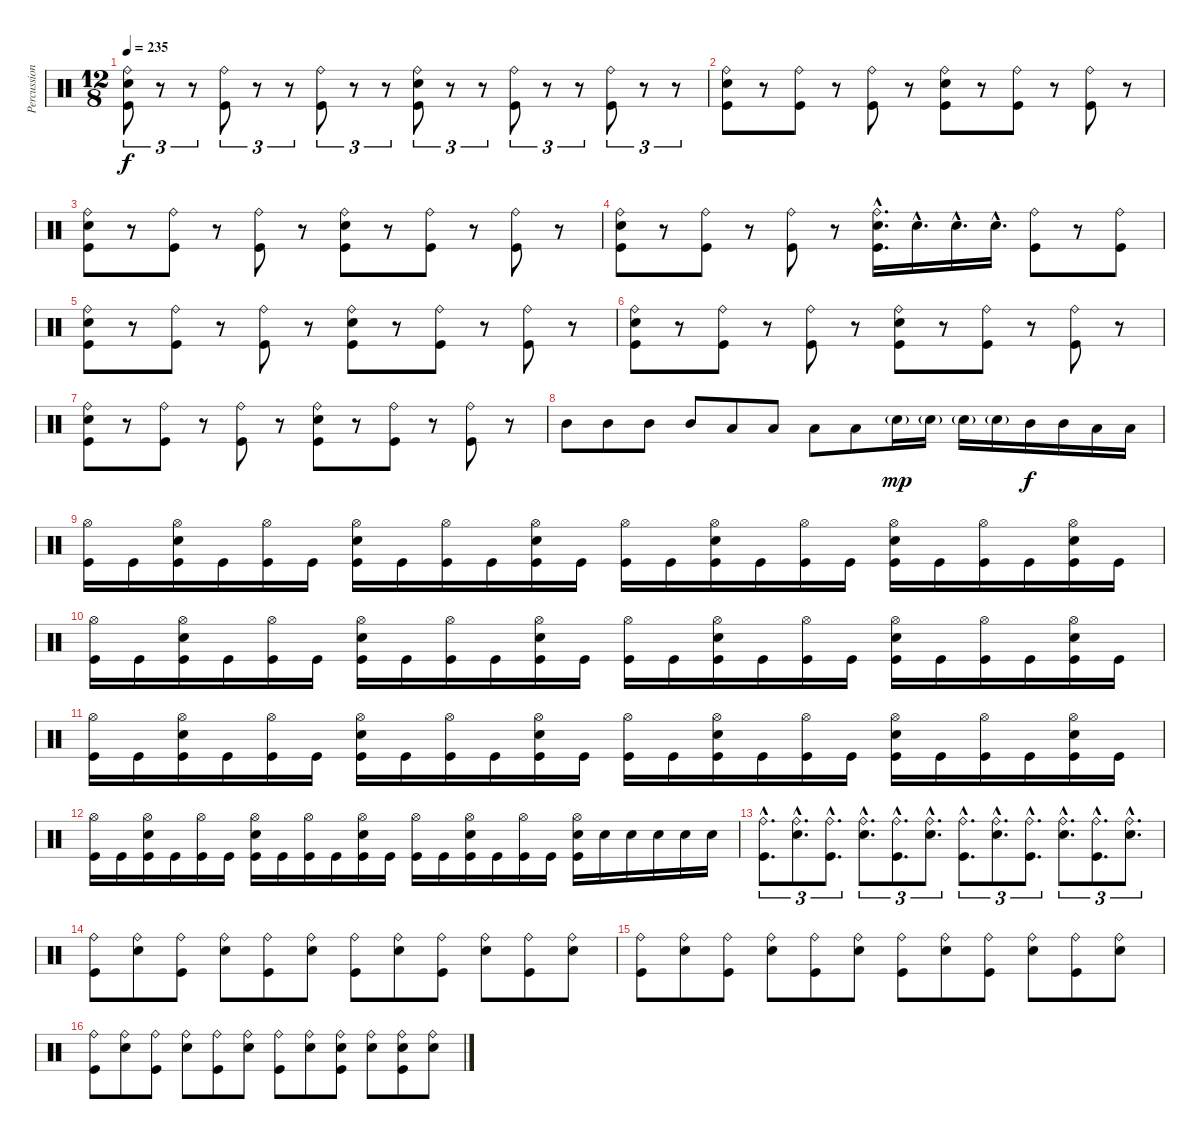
\track ("Percussion" "Percussion") {instrument percussion}
\staff {score}
\articulation defaults
\ts (12 8)
\tempo 235
\clef neutral
\ks c
("Ride (bell)" "Snare (hit) 2" "Kick (hit)").8{tu (3 2) dy f} r.8{tu (3 2)} r.8{tu (3 2)} ("Ride (bell)" "Kick (hit)").8{tu (3 2)} r.8{tu (3 2)} r.8{tu (3 2)} ("Ride (bell)" "Kick (hit)").8{tu (3 2)} r.8{tu (3 2)} r.8{tu (3 2)} ("Ride (bell)" "Snare (hit) 2" "Kick (hit)").8{tu (3 2)} r.8{tu (3 2)} r.8{tu (3 2)} ("Ride (bell)" "Kick (hit)").8{tu (3 2)} r.8{tu (3 2)} r.8{tu (3 2)} ("Ride (bell)" "Kick (hit)").8{tu (3 2)} r.8{tu (3 2)} r.8{tu (3 2)} |
("Ride (bell)" "Snare (hit) 2" "Kick (hit)").8 r.8 ("Ride (bell)" "Kick (hit)").8 r.8 ("Ride (bell)" "Kick (hit)").8 r.8 ("Ride (bell)" "Snare (hit) 2" "Kick (hit)").8 r.8 ("Ride (bell)" "Kick (hit)").8 r.8 ("Ride (bell)" "Kick (hit)").8 r.8 |
("Ride (bell)" "Snare (hit) 2" "Kick (hit)").8 r.8 ("Ride (bell)" "Kick (hit)").8 r.8 ("Ride (bell)" "Kick (hit)").8 r.8 ("Ride (bell)" "Snare (hit) 2" "Kick (hit)").8 r.8 ("Ride (bell)" "Kick (hit)").8 r.8 ("Ride (bell)" "Kick (hit)").8 r.8 |
("Ride (bell)" "Snare (hit) 2" "Kick (hit)").8 r.8 ("Ride (bell)" "Kick (hit)").8 r.8 ("Ride (bell)" "Kick (hit)").8 r.8 ("Ride (bell)"{hac} "Snare (hit) 2"{hac} "Kick (hit)"{hac}).16{d} "Snare (hit) 2"{hac}.16{d} "Snare (hit) 2"{hac}.16{d} "Snare (hit) 2"{hac}.16{d} ("Ride (bell)" "Kick (hit)").8 r.8 ("Ride (bell)" "Kick (hit)").8 |
("Ride (bell)" "Snare (hit) 2" "Kick (hit)").8 r.8 ("Ride (bell)" "Kick (hit)").8 r.8 ("Ride (bell)" "Kick (hit)").8 r.8 ("Ride (bell)" "Snare (hit) 2" "Kick (hit)").8 r.8 ("Ride (bell)" "Kick (hit)").8 r.8 ("Ride (bell)" "Kick (hit)").8 r.8 |
("Ride (bell)" "Snare (hit) 2" "Kick (hit)").8 r.8 ("Ride (bell)" "Kick (hit)").8 r.8 ("Ride (bell)" "Kick (hit)").8 r.8 ("Ride (bell)" "Snare (hit) 2" "Kick (hit)").8 r.8 ("Ride (bell)" "Kick (hit)").8 r.8 ("Ride (bell)" "Kick (hit)").8 r.8 |
("Ride (bell)" "Snare (hit) 2" "Kick (hit)").8 r.8 ("Ride (bell)" "Kick (hit)").8 r.8 ("Ride (bell)" "Kick (hit)").8 r.8 ("Ride (bell)" "Snare (hit) 2" "Kick (hit)").8 r.8 ("Ride (bell)" "Kick (hit)").8 r.8 ("Ride (bell)" "Kick (hit)").8 r.8 |
"Mid Tom (hit)".8 "Mid Tom (hit)".8 "Mid Tom (hit)".8 "Mid Tom (hit)".8 "Low Tom (hit)".8 "Low Tom (hit)".8 "Low Tom (hit)".8 "Low Tom (hit)".8 "Snare (hit) 2"{g}.16{dy mp} "Snare (hit) 2"{g}.16 "Snare (hit) 2"{g}.16 "Snare (hit) 2"{g}.16 "Mid Tom (hit)".16{dy f} "Mid Tom (hit)".16 "Low Tom (hit)".16 "Low Tom (hit)".16 |
("Hi-Hat (open)" "Kick (hit)").16 "Kick (hit)".16 ("Hi-Hat (open)" "Snare (hit) 2" "Kick (hit)").16 "Kick (hit)".16 ("Hi-Hat (open)" "Kick (hit)").16 "Kick (hit)".16 ("Hi-Hat (open)" "Snare (hit) 2" "Kick (hit)").16 "Kick (hit)".16 ("Hi-Hat (open)" "Kick (hit)").16 "Kick (hit)".16 ("Hi-Hat (open)" "Snare (hit) 2" "Kick (hit)").16 "Kick (hit)".16 ("Hi-Hat (open)" "Kick (hit)").16 "Kick (hit)".16 ("Hi-Hat (open)" "Snare (hit) 2" "Kick (hit)").16 "Kick (hit)".16 ("Hi-Hat (open)" "Kick (hit)").16 "Kick (hit)".16 ("Hi-Hat (open)" "Snare (hit) 2" "Kick (hit)").16 "Kick (hit)".16 ("Hi-Hat (open)" "Kick (hit)").16 "Kick (hit)".16 ("Hi-Hat (open)" "Snare (hit) 2" "Kick (hit)").16 "Kick (hit)".16 |
("Hi-Hat (open)" "Kick (hit)").16 "Kick (hit)".16 ("Hi-Hat (open)" "Snare (hit) 2" "Kick (hit)").16 "Kick (hit)".16 ("Hi-Hat (open)" "Kick (hit)").16 "Kick (hit)".16 ("Hi-Hat (open)" "Snare (hit) 2" "Kick (hit)").16 "Kick (hit)".16 ("Hi-Hat (open)" "Kick (hit)").16 "Kick (hit)".16 ("Hi-Hat (open)" "Snare (hit) 2" "Kick (hit)").16 "Kick (hit)".16 ("Hi-Hat (open)" "Kick (hit)").16 "Kick (hit)".16 ("Hi-Hat (open)" "Snare (hit) 2" "Kick (hit)").16 "Kick (hit)".16 ("Hi-Hat (open)" "Kick (hit)").16 "Kick (hit)".16 ("Hi-Hat (open)" "Snare (hit) 2" "Kick (hit)").16 "Kick (hit)".16 ("Hi-Hat (open)" "Kick (hit)").16 "Kick (hit)".16 ("Hi-Hat (open)" "Snare (hit) 2" "Kick (hit)").16 "Kick (hit)".16 |
("Hi-Hat (open)" "Kick (hit)").16 "Kick (hit)".16 ("Hi-Hat (open)" "Snare (hit) 2" "Kick (hit)").16 "Kick (hit)".16 ("Hi-Hat (open)" "Kick (hit)").16 "Kick (hit)".16 ("Hi-Hat (open)" "Snare (hit) 2" "Kick (hit)").16 "Kick (hit)".16 ("Hi-Hat (open)" "Kick (hit)").16 "Kick (hit)".16 ("Hi-Hat (open)" "Snare (hit) 2" "Kick (hit)").16 "Kick (hit)".16 ("Hi-Hat (open)" "Kick (hit)").16 "Kick (hit)".16 ("Hi-Hat (open)" "Snare (hit) 2" "Kick (hit)").16 "Kick (hit)".16 ("Hi-Hat (open)" "Kick (hit)").16 "Kick (hit)".16 ("Hi-Hat (open)" "Snare (hit) 2" "Kick (hit)").16 "Kick (hit)".16 ("Hi-Hat (open)" "Kick (hit)").16 "Kick (hit)".16 ("Hi-Hat (open)" "Snare (hit) 2" "Kick (hit)").16 "Kick (hit)".16 |
("Hi-Hat (open)" "Kick (hit)").16 "Kick (hit)".16 ("Hi-Hat (open)" "Snare (hit) 2" "Kick (hit)").16 "Kick (hit)".16 ("Hi-Hat (open)" "Kick (hit)").16 "Kick (hit)".16 ("Hi-Hat (open)" "Snare (hit) 2" "Kick (hit)").16 "Kick (hit)".16 ("Hi-Hat (open)" "Kick (hit)").16 "Kick (hit)".16 ("Hi-Hat (open)" "Snare (hit) 2" "Kick (hit)").16 "Kick (hit)".16 ("Hi-Hat (open)" "Kick (hit)").16 "Kick (hit)".16 ("Hi-Hat (open)" "Snare (hit) 2" "Kick (hit)").16 "Kick (hit)".16 ("Hi-Hat (open)" "Kick (hit)").16 "Kick (hit)".16 ("Hi-Hat (open)" "Snare (hit) 2" "Kick (hit)").16 "Snare (hit) 2".16 "Snare (hit) 2".16 "Snare (hit) 2".16 "Snare (hit) 2".16 "Snare (hit) 2".16 |
("Ride (bell)"{hac} "Kick (hit)"{hac}).8{d tu (3 2)} ("Ride (bell)"{hac} "Snare (hit) 2"{hac}).8{d tu (3 2)} ("Ride (bell)"{hac} "Kick (hit)"{hac}).8{d tu (3 2)} ("Ride (bell)"{hac} "Snare (hit) 2"{hac}).8{d tu (3 2)} ("Ride (bell)"{hac} "Kick (hit)"{hac}).8{d tu (3 2)} ("Ride (bell)"{hac} "Snare (hit) 2"{hac}).8{d tu (3 2)} ("Ride (bell)"{hac} "Kick (hit)"{hac}).8{d tu (3 2)} ("Ride (bell)"{hac} "Snare (hit) 2"{hac}).8{d tu (3 2)} ("Ride (bell)"{hac} "Kick (hit)"{hac}).8{d tu (3 2)} ("Ride (bell)"{hac} "Snare (hit) 2"{hac}).8{d tu (3 2)} ("Ride (bell)"{hac} "Kick (hit)"{hac}).8{d tu (3 2)} ("Ride (bell)"{hac} "Snare (hit) 2"{hac}).8{d tu (3 2)} |
("Ride (bell)" "Kick (hit)").8 ("Ride (bell)" "Snare (hit) 2").8 ("Ride (bell)" "Kick (hit)").8 ("Ride (bell)" "Snare (hit) 2").8 ("Ride (bell)" "Kick (hit)").8 ("Ride (bell)" "Snare (hit) 2").8 ("Ride (bell)" "Kick (hit)").8 ("Ride (bell)" "Snare (hit) 2").8 ("Ride (bell)" "Kick (hit)").8 ("Ride (bell)" "Snare (hit) 2").8 ("Ride (bell)" "Kick (hit)").8 ("Ride (bell)" "Snare (hit) 2").8 |
("Ride (bell)" "Kick (hit)").8 ("Ride (bell)" "Snare (hit) 2").8 ("Ride (bell)" "Kick (hit)").8 ("Ride (bell)" "Snare (hit) 2").8 ("Ride (bell)" "Kick (hit)").8 ("Ride (bell)" "Snare (hit) 2").8 ("Ride (bell)" "Kick (hit)").8 ("Ride (bell)" "Snare (hit) 2").8 ("Ride (bell)" "Kick (hit)").8 ("Ride (bell)" "Snare (hit) 2").8 ("Ride (bell)" "Kick (hit)").8 ("Ride (bell)" "Snare (hit) 2").8 |
("Ride (bell)" "Kick (hit)").8 ("Ride (bell)" "Snare (hit) 2").8 ("Ride (bell)" "Kick (hit)").8 ("Ride (bell)" "Snare (hit) 2").8 ("Ride (bell)" "Kick (hit)").8 ("Ride (bell)" "Snare (hit) 2").8 ("Ride (bell)" "Kick (hit)").8 ("Ride (bell)" "Snare (hit) 2").8 ("Ride (bell)" "Snare (hit) 2" "Kick (hit)").8 ("Ride (bell)" "Snare (hit) 2").8 ("Ride (bell)" "Snare (hit) 2" "Kick (hit)").8 ("Ride (bell)" "Snare (hit) 2").8
